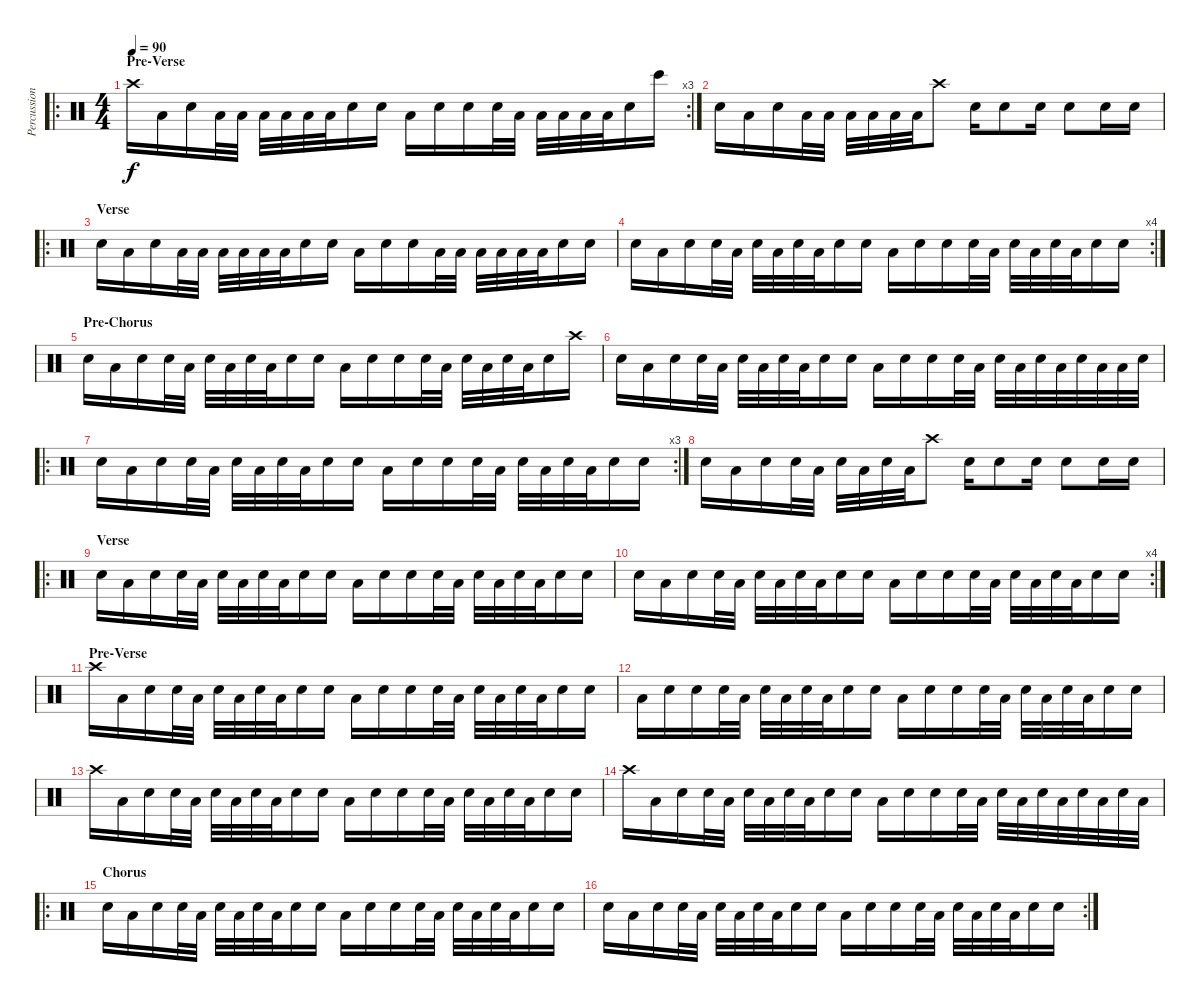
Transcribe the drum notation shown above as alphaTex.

\track ("Percussion" "Percussion") {instrument percussion}
\staff {score}
\articulation defaults
\ro
\rc 3
\ts (4 4)
\section ("" "Pre-Verse")
\tempo 90
\clef neutral
\ks c "Crash high (hit)".16{dy f} "Low Floor Tom (hit)".16 "Hand Clap (hit)".16 "Low Floor Tom (hit)".32 "Low Floor Tom (hit)".32 "Low Floor Tom (hit)".32 "Low Floor Tom (hit)".32 "Low Floor Tom (hit)".32 "Low Floor Tom (hit)".32 "Hand Clap (hit)".16 "Electric Snare (hit)".16 "Low Floor Tom (hit)".16 "Electric Snare (hit)".16 "Hand Clap (hit)".16 "Electric Snare (hit)".32 "Low Floor Tom (hit)".32 "Low Floor Tom (hit)".32 "Low Floor Tom (hit)".32 "Low Floor Tom (hit)".32 "Low Floor Tom (hit)".32 "Hand Clap (hit)".16 "Bongo High (hit)".16
|
"Electric Snare (hit)".16 "Low Floor Tom (hit)".16 "Hand Clap (hit)".16 "Low Floor Tom (hit)".32 "Low Floor Tom (hit)".32 "Low Floor Tom (hit)".32 "Low Floor Tom (hit)".32 "Low Floor Tom (hit)".32 "Low Floor Tom (hit)".32 "Crash high (hit)".8 "Electric Snare (hit)".16 "Snare (hit) 2".8 "Snare (hit) 2".16 "Snare (hit) 2".8 "Snare (hit) 2".16 "Snare (hit) 2".16 |
\ro
\section ("" "Verse")
"Electric Snare (hit)".16 "Low Floor Tom (hit)".16 "Hand Clap (hit)".16 "Low Floor Tom (hit)".32 "Low Floor Tom (hit)".32 "Low Floor Tom (hit)".32 "Low Floor Tom (hit)".32 "Low Floor Tom (hit)".32 "Low Floor Tom (hit)".32 "Hand Clap (hit)".16 "Electric Snare (hit)".16 "Low Floor Tom (hit)".16 "Electric Snare (hit)".16 "Hand Clap (hit)".16 "Low Floor Tom (hit)".32 "Low Floor Tom (hit)".32 "Low Floor Tom (hit)".32 "Low Floor Tom (hit)".32 "Low Floor Tom (hit)".32 "Low Floor Tom (hit)".32 "Hand Clap (hit)".16 "Snare (hit) 2".16 |
\rc 4 "Electric Snare (hit)".16 "Low Floor Tom (hit)".16 "Hand Clap (hit)".16 "Electric Snare (hit)".32 "Low Floor Tom (hit)".32 "Electric Snare (hit)".32 "Low Floor Tom (hit)".32 "Electric Snare (hit)".32 "Low Floor Tom (hit)".32 "Hand Clap (hit)".16 "Electric Snare (hit)".16 "Low Floor Tom (hit)".16 "Electric Snare (hit)".16 "Hand Clap (hit)".16 "Electric Snare (hit)".32 "Low Floor Tom (hit)".32 "Electric Snare (hit)".32 "Low Floor Tom (hit)".32 "Electric Snare (hit)".32 "Low Floor Tom (hit)".32 "Hand Clap (hit)".16 "Snare (hit) 2".16
|
\section ("" "Pre-Chorus")
"Electric Snare (hit)".16 "Low Floor Tom (hit)".16 "Hand Clap (hit)".16 "Electric Snare (hit)".32 "Low Floor Tom (hit)".32 "Electric Snare (hit)".32 "Low Floor Tom (hit)".32 "Electric Snare (hit)".32 "Low Floor Tom (hit)".32 "Hand Clap (hit)".16 "Electric Snare (hit)".16 "Low Floor Tom (hit)".16 "Electric Snare (hit)".16 "Hand Clap (hit)".16 "Electric Snare (hit)".32 "Low Floor Tom (hit)".32 "Electric Snare (hit)".32 "Low Floor Tom (hit)".32 "Electric Snare (hit)".32 "Low Floor Tom (hit)".32 "Hand Clap (hit)".16 "Crash high (hit)".16 |
"Electric Snare (hit)".16 "Low Floor Tom (hit)".16 "Hand Clap (hit)".16 "Electric Snare (hit)".32 "Low Floor Tom (hit)".32 "Electric Snare (hit)".32 "Low Floor Tom (hit)".32 "Electric Snare (hit)".32 "Low Floor Tom (hit)".32 "Hand Clap (hit)".16 "Electric Snare (hit)".16 "Low Floor Tom (hit)".16 "Electric Snare (hit)".16 "Hand Clap (hit)".16 "Electric Snare (hit)".32 "Low Floor Tom (hit)".32 "Electric Snare (hit)".32 "Low Floor Tom (hit)".32 "Electric Snare (hit)".32 "Low Floor Tom (hit)".32 "Electric Snare (hit)".32 "Low Floor Tom (hit)".32 "Low Floor Tom (hit)".32 "Electric Snare (hit)".32 |
\ro
\rc 3 "Electric Snare (hit)".16 "Low Floor Tom (hit)".16 "Hand Clap (hit)".16 "Electric Snare (hit)".32 "Low Floor Tom (hit)".32 "Electric Snare (hit)".32 "Low Floor Tom (hit)".32 "Electric Snare (hit)".32 "Low Floor Tom (hit)".32 "Hand Clap (hit)".16 "Electric Snare (hit)".16 "Low Floor Tom (hit)".16 "Electric Snare (hit)".16 "Hand Clap (hit)".16 "Electric Snare (hit)".32 "Low Floor Tom (hit)".32 "Electric Snare (hit)".32 "Low Floor Tom (hit)".32 "Electric Snare (hit)".32 "Low Floor Tom (hit)".32 "Hand Clap (hit)".16 "Snare (hit) 2".16
|
"Electric Snare (hit)".16 "Low Floor Tom (hit)".16 "Hand Clap (hit)".16 "Electric Snare (hit)".32 "Low Floor Tom (hit)".32 "Electric Snare (hit)".32 "Low Floor Tom (hit)".32 "Electric Snare (hit)".32 "Low Floor Tom (hit)".32 "Crash high (hit)".8 "Electric Snare (hit)".16 "Snare (hit) 2".8 "Snare (hit) 2".16 "Snare (hit) 2".8 "Snare (hit) 2".16 "Snare (hit) 2".16 |
\ro
\section ("" "Verse")
"Electric Snare (hit)".16 "Low Floor Tom (hit)".16 "Hand Clap (hit)".16 "Electric Snare (hit)".32 "Low Floor Tom (hit)".32 "Electric Snare (hit)".32 "Low Floor Tom (hit)".32 "Electric Snare (hit)".32 "Low Floor Tom (hit)".32 "Hand Clap (hit)".16 "Electric Snare (hit)".16 "Low Floor Tom (hit)".16 "Electric Snare (hit)".16 "Hand Clap (hit)".16 "Electric Snare (hit)".32 "Low Floor Tom (hit)".32 "Electric Snare (hit)".32 "Low Floor Tom (hit)".32 "Electric Snare (hit)".32 "Low Floor Tom (hit)".32 "Hand Clap (hit)".16 "Snare (hit) 2".16 |
\rc 4 "Electric Snare (hit)".16 "Low Floor Tom (hit)".16 "Hand Clap (hit)".16 "Electric Snare (hit)".32 "Low Floor Tom (hit)".32 "Electric Snare (hit)".32 "Low Floor Tom (hit)".32 "Electric Snare (hit)".32 "Low Floor Tom (hit)".32 "Hand Clap (hit)".16 "Electric Snare (hit)".16 "Low Floor Tom (hit)".16 "Electric Snare (hit)".16 "Hand Clap (hit)".16 "Electric Snare (hit)".32 "Low Floor Tom (hit)".32 "Electric Snare (hit)".32 "Low Floor Tom (hit)".32 "Electric Snare (hit)".32 "Low Floor Tom (hit)".32 "Hand Clap (hit)".16 "Snare (hit) 2".16
|
\section ("" "Pre-Verse")
"Crash high (hit)".16 "Low Floor Tom (hit)".16 "Hand Clap (hit)".16 "Electric Snare (hit)".32 "Low Floor Tom (hit)".32 "Electric Snare (hit)".32 "Low Floor Tom (hit)".32 "Electric Snare (hit)".32 "Low Floor Tom (hit)".32 "Hand Clap (hit)".16 "Electric Snare (hit)".16 "Low Floor Tom (hit)".16 "Electric Snare (hit)".16 "Hand Clap (hit)".16 "Electric Snare (hit)".32 "Low Floor Tom (hit)".32 "Electric Snare (hit)".32 "Low Floor Tom (hit)".32 "Electric Snare (hit)".32 "Low Floor Tom (hit)".32 "Hand Clap (hit)".16 "Snare (hit) 2".16 |
"Low Floor Tom (hit)".16 "Electric Snare (hit)".16 "Hand Clap (hit)".16 "Electric Snare (hit)".32 "Low Floor Tom (hit)".32 "Electric Snare (hit)".32 "Low Floor Tom (hit)".32 "Electric Snare (hit)".32 "Low Floor Tom (hit)".32 "Hand Clap (hit)".16 "Electric Snare (hit)".16 "Low Floor Tom (hit)".16 "Electric Snare (hit)".16 "Hand Clap (hit)".16 "Electric Snare (hit)".32 "Low Floor Tom (hit)".32 "Electric Snare (hit)".32 "Low Floor Tom (hit)".32 "Electric Snare (hit)".32 "Low Floor Tom (hit)".32 "Hand Clap (hit)".16 "Snare (hit) 2".16 |
"Crash high (hit)".16 "Low Floor Tom (hit)".16 "Hand Clap (hit)".16 "Electric Snare (hit)".32 "Low Floor Tom (hit)".32 "Electric Snare (hit)".32 "Low Floor Tom (hit)".32 "Electric Snare (hit)".32 "Low Floor Tom (hit)".32 "Hand Clap (hit)".16 "Electric Snare (hit)".16 "Low Floor Tom (hit)".16 "Electric Snare (hit)".16 "Hand Clap (hit)".16 "Electric Snare (hit)".32 "Low Floor Tom (hit)".32 "Electric Snare (hit)".32 "Low Floor Tom (hit)".32 "Electric Snare (hit)".32 "Low Floor Tom (hit)".32 "Hand Clap (hit)".16 "Snare (hit) 2".16 |
"Crash high (hit)".16 "Low Floor Tom (hit)".16 "Hand Clap (hit)".16 "Electric Snare (hit)".32 "Low Floor Tom (hit)".32 "Electric Snare (hit)".32 "Low Floor Tom (hit)".32 "Electric Snare (hit)".32 "Low Floor Tom (hit)".32 "Hand Clap (hit)".16 "Electric Snare (hit)".16 "Low Floor Tom (hit)".16 "Electric Snare (hit)".16 "Hand Clap (hit)".16 "Electric Snare (hit)".32 "Low Floor Tom (hit)".32 "Electric Snare (hit)".32 "Low Floor Tom (hit)".32 "Electric Snare (hit)".32 "Low Floor Tom (hit)".32 "Electric Snare (hit)".32 "Low Floor Tom (hit)".32 "Electric Snare (hit)".32 "Low Floor Tom (hit)".32 |
\ro
\section ("" "Chorus")
"Electric Snare (hit)".16 "Low Floor Tom (hit)".16 "Hand Clap (hit)".16 "Electric Snare (hit)".32 "Low Floor Tom (hit)".32 "Electric Snare (hit)".32 "Low Floor Tom (hit)".32 "Electric Snare (hit)".32 "Low Floor Tom (hit)".32 "Hand Clap (hit)".16 "Electric Snare (hit)".16 "Low Floor Tom (hit)".16 "Electric Snare (hit)".16 "Hand Clap (hit)".16 "Electric Snare (hit)".32 "Low Floor Tom (hit)".32 "Electric Snare (hit)".32 "Low Floor Tom (hit)".32 "Electric Snare (hit)".32 "Low Floor Tom (hit)".32 "Hand Clap (hit)".16 "Snare (hit) 2".16 |
\rc 2 "Electric Snare (hit)".16 "Low Floor Tom (hit)".16 "Hand Clap (hit)".16 "Electric Snare (hit)".32 "Low Floor Tom (hit)".32 "Electric Snare (hit)".32 "Low Floor Tom (hit)".32 "Electric Snare (hit)".32 "Low Floor Tom (hit)".32 "Hand Clap (hit)".16 "Electric Snare (hit)".16 "Low Floor Tom (hit)".16 "Electric Snare (hit)".16 "Hand Clap (hit)".16 "Electric Snare (hit)".32 "Low Floor Tom (hit)".32 "Electric Snare (hit)".32 "Low Floor Tom (hit)".32 "Electric Snare (hit)".32 "Low Floor Tom (hit)".32 "Hand Clap (hit)".16 "Snare (hit) 2".16
